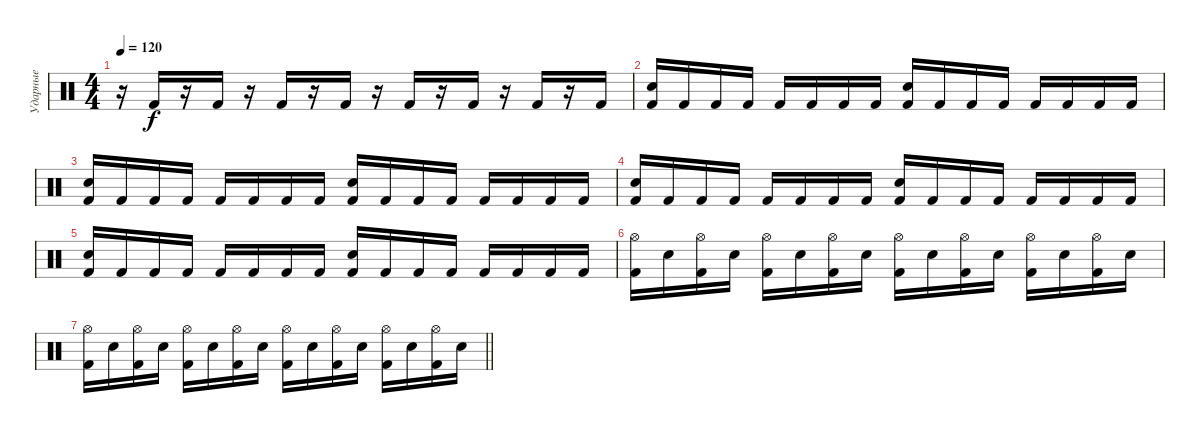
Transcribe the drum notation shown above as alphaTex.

\track ("Ударные" "Ударные") {instrument percussion}
\staff {score}
\articulation defaults
\ts (4 4)
\tempo 120
\clef neutral
\ks c
r.16{dy f} "Kick (hit) 2".16{volume 10} r.16 "Kick (hit) 2".16{volume 11} r.16 "Kick (hit) 2".16{volume 12} r.16 "Kick (hit) 2".16{volume 13} r.16 "Kick (hit) 2".16{volume 16} r.16 "Kick (hit) 2".16 r.16 "Kick (hit) 2".16 r.16 "Kick (hit) 2".16 |
("Electric Snare (hit)" "Kick (hit) 2").16 "Kick (hit) 2".16 "Kick (hit) 2".16 "Kick (hit) 2".16 "Kick (hit) 2".16 "Kick (hit) 2".16 "Kick (hit) 2".16 "Kick (hit) 2".16 ("Electric Snare (hit)" "Kick (hit) 2").16 "Kick (hit) 2".16 "Kick (hit) 2".16 "Kick (hit) 2".16 "Kick (hit) 2".16 "Kick (hit) 2".16 "Kick (hit) 2".16 "Kick (hit) 2".16 |
("Electric Snare (hit)" "Kick (hit) 2").16 "Kick (hit) 2".16 "Kick (hit) 2".16 "Kick (hit) 2".16 "Kick (hit) 2".16 "Kick (hit) 2".16 "Kick (hit) 2".16 "Kick (hit) 2".16 ("Electric Snare (hit)" "Kick (hit) 2").16 "Kick (hit) 2".16 "Kick (hit) 2".16 "Kick (hit) 2".16 "Kick (hit) 2".16 "Kick (hit) 2".16 "Kick (hit) 2".16 "Kick (hit) 2".16 |
("Electric Snare (hit)" "Kick (hit) 2").16 "Kick (hit) 2".16 "Kick (hit) 2".16 "Kick (hit) 2".16 "Kick (hit) 2".16 "Kick (hit) 2".16 "Kick (hit) 2".16 "Kick (hit) 2".16 ("Electric Snare (hit)" "Kick (hit) 2").16 "Kick (hit) 2".16 "Kick (hit) 2".16 "Kick (hit) 2".16 "Kick (hit) 2".16 "Kick (hit) 2".16 "Kick (hit) 2".16 "Kick (hit) 2".16 |
("Electric Snare (hit)" "Kick (hit) 2").16 "Kick (hit) 2".16 "Kick (hit) 2".16 "Kick (hit) 2".16 "Kick (hit) 2".16 "Kick (hit) 2".16 "Kick (hit) 2".16 "Kick (hit) 2".16 ("Electric Snare (hit)" "Kick (hit) 2").16 "Kick (hit) 2".16 "Kick (hit) 2".16 "Kick (hit) 2".16 "Kick (hit) 2".16 "Kick (hit) 2".16 "Kick (hit) 2".16 "Kick (hit) 2".16 |
("Hi-Hat (open)" "Kick (hit) 2").16 "Electric Snare (hit)".16 ("Hi-Hat (open)" "Kick (hit) 2").16 "Electric Snare (hit)".16 ("Hi-Hat (open)" "Kick (hit) 2").16 "Electric Snare (hit)".16 ("Hi-Hat (open)" "Kick (hit) 2").16 "Electric Snare (hit)".16 ("Hi-Hat (open)" "Kick (hit) 2").16 "Electric Snare (hit)".16 ("Hi-Hat (open)" "Kick (hit) 2").16 "Electric Snare (hit)".16 ("Hi-Hat (open)" "Kick (hit) 2").16 "Electric Snare (hit)".16 ("Hi-Hat (open)" "Kick (hit) 2").16 "Electric Snare (hit)".16 |
\barLineRight lightlight
("Hi-Hat (open)" "Kick (hit) 2").16 "Electric Snare (hit)".16 ("Hi-Hat (open)" "Kick (hit) 2").16 "Electric Snare (hit)".16 ("Hi-Hat (open)" "Kick (hit) 2").16 "Electric Snare (hit)".16 ("Hi-Hat (open)" "Kick (hit) 2").16 "Electric Snare (hit)".16 ("Hi-Hat (open)" "Kick (hit) 2").16 "Electric Snare (hit)".16 ("Hi-Hat (open)" "Kick (hit) 2").16 "Electric Snare (hit)".16 ("Hi-Hat (open)" "Kick (hit) 2").16 "Electric Snare (hit)".16 ("Hi-Hat (open)" "Kick (hit) 2").16 "Electric Snare (hit)".16
